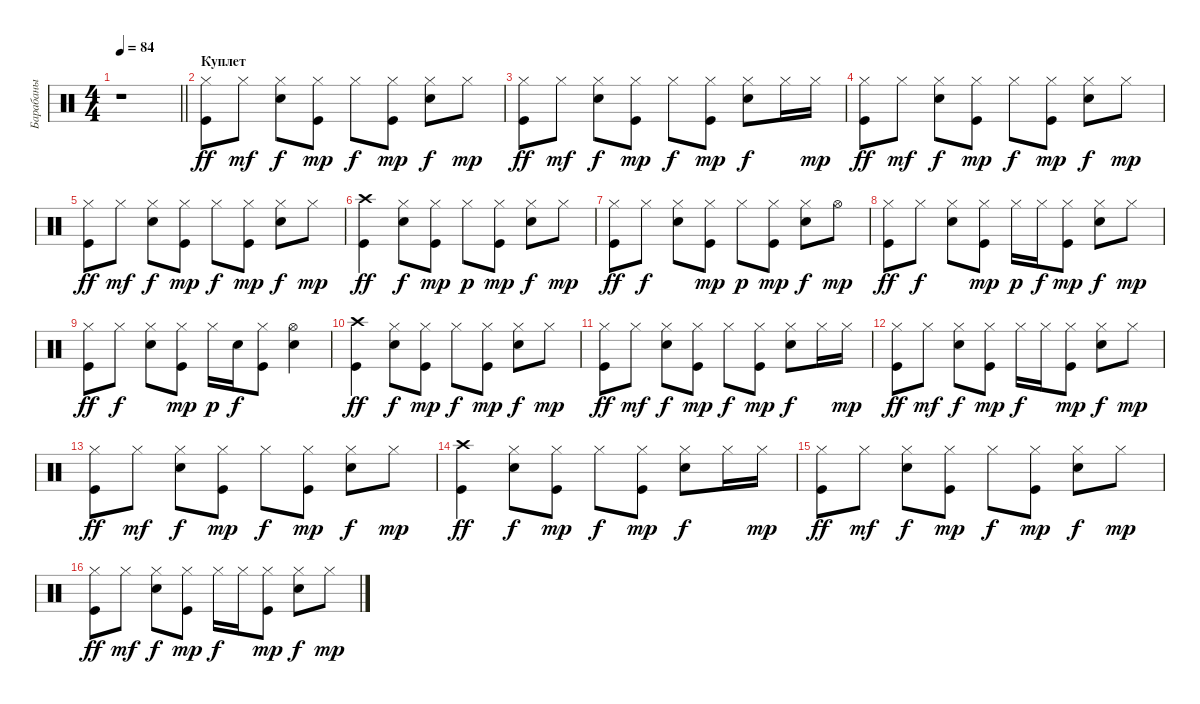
\track ("Барабаны" "Барабаны") {instrument percussion}
\staff {score}
\articulation defaults
\ts (4 4)
\tempo 84
\clef neutral
\barLineRight lightlight
\ks c
r.1{dy f} |
\section ("" "Куплет")
("Hi-Hat (closed)" "Kick (hit)").8{dy ff} "Hi-Hat (closed)".8{dy mf} ("Hi-Hat (closed)" "Electric Snare (hit)").8{dy f} ("Hi-Hat (closed)" "Kick (hit)").8{dy mp} "Hi-Hat (closed)".8{dy f} ("Hi-Hat (closed)" "Kick (hit)").8{dy mp} ("Hi-Hat (closed)" "Electric Snare (hit)").8{dy f} "Hi-Hat (closed)".8{dy mp} |
("Hi-Hat (closed)" "Kick (hit)").8{dy ff} "Hi-Hat (closed)".8{dy mf} ("Hi-Hat (closed)" "Electric Snare (hit)").8{dy f} ("Hi-Hat (closed)" "Kick (hit)").8{dy mp} "Hi-Hat (closed)".8{dy f} ("Hi-Hat (closed)" "Kick (hit)").8{dy mp} ("Hi-Hat (closed)" "Electric Snare (hit)").8{dy f} "Hi-Hat (closed)".16 "Hi-Hat (closed)".16{dy mp} |
("Hi-Hat (closed)" "Kick (hit)").8{dy ff} "Hi-Hat (closed)".8{dy mf} ("Hi-Hat (closed)" "Electric Snare (hit)").8{dy f} ("Hi-Hat (closed)" "Kick (hit)").8{dy mp} "Hi-Hat (closed)".8{dy f} ("Hi-Hat (closed)" "Kick (hit)").8{dy mp} ("Hi-Hat (closed)" "Electric Snare (hit)").8{dy f} "Hi-Hat (closed)".8{dy mp} |
("Hi-Hat (closed)" "Kick (hit)").8{dy ff} "Hi-Hat (closed)".8{dy mf} ("Hi-Hat (closed)" "Electric Snare (hit)").8{dy f} ("Hi-Hat (closed)" "Kick (hit)").8{dy mp} "Hi-Hat (closed)".8{dy f} ("Hi-Hat (closed)" "Kick (hit)").8{dy mp} ("Hi-Hat (closed)" "Electric Snare (hit)").8{dy f} "Hi-Hat (closed)".8{dy mp} |
("Crash high (hit)" "Kick (hit)").4{dy ff} ("Hi-Hat (closed)" "Electric Snare (hit)").8{dy f} ("Hi-Hat (closed)" "Kick (hit)").8{dy mp} "Hi-Hat (closed)".8{dy p} ("Hi-Hat (closed)" "Kick (hit)").8{dy mp} ("Hi-Hat (closed)" "Electric Snare (hit)").8{dy f} "Hi-Hat (closed)".8{dy mp} |
("Hi-Hat (closed)" "Kick (hit)").8{dy ff} "Hi-Hat (closed)".8{dy f} ("Hi-Hat (closed)" "Electric Snare (hit)").8 ("Hi-Hat (closed)" "Kick (hit)").8{dy mp} "Hi-Hat (closed)".8{dy p} ("Hi-Hat (closed)" "Kick (hit)").8{dy mp} ("Hi-Hat (closed)" "Electric Snare (hit)").8{dy f} "Hi-Hat (open)".8{dy mp} |
("Hi-Hat (closed)" "Kick (hit)").8{dy ff} "Hi-Hat (closed)".8{dy f} ("Hi-Hat (closed)" "Electric Snare (hit)").8 ("Hi-Hat (closed)" "Kick (hit)").8{dy mp} "Hi-Hat (closed)".16{dy p} "Hi-Hat (closed)".16{dy f} ("Hi-Hat (closed)" "Kick (hit)").8{dy mp} ("Hi-Hat (closed)" "Electric Snare (hit)").8{dy f} "Hi-Hat (closed)".8{dy mp} |
("Hi-Hat (closed)" "Kick (hit)").8{dy ff} "Hi-Hat (closed)".8{dy f} ("Hi-Hat (closed)" "Electric Snare (hit)").8 ("Hi-Hat (closed)" "Kick (hit)").8{dy mp} "Hi-Hat (closed)".16{dy p} "Electric Snare (hit)".16{dy f} ("Hi-Hat (closed)" "Kick (hit)").8 ("Hi-Hat (open)" "Electric Snare (hit)").4 |
("Crash high (hit)" "Kick (hit)").4{dy ff} ("Hi-Hat (closed)" "Electric Snare (hit)").8{dy f} ("Hi-Hat (closed)" "Kick (hit)").8{dy mp} "Hi-Hat (closed)".8{dy f} ("Hi-Hat (closed)" "Kick (hit)").8{dy mp} ("Hi-Hat (closed)" "Electric Snare (hit)").8{dy f} "Hi-Hat (closed)".8{dy mp} |
("Hi-Hat (closed)" "Kick (hit)").8{dy ff} "Hi-Hat (closed)".8{dy mf} ("Hi-Hat (closed)" "Electric Snare (hit)").8{dy f} ("Hi-Hat (closed)" "Kick (hit)").8{dy mp} "Hi-Hat (closed)".8{dy f} ("Hi-Hat (closed)" "Kick (hit)").8{dy mp} ("Hi-Hat (closed)" "Electric Snare (hit)").8{dy f} "Hi-Hat (closed)".16 "Hi-Hat (closed)".16{dy mp} |
("Hi-Hat (closed)" "Kick (hit)").8{dy ff} "Hi-Hat (closed)".8{dy mf} ("Hi-Hat (closed)" "Electric Snare (hit)").8{dy f} ("Hi-Hat (closed)" "Kick (hit)").8{dy mp} "Hi-Hat (closed)".16{dy f} "Hi-Hat (closed)".16 ("Hi-Hat (closed)" "Kick (hit)").8{dy mp} ("Hi-Hat (closed)" "Electric Snare (hit)").8{dy f} "Hi-Hat (closed)".8{dy mp} |
("Hi-Hat (closed)" "Kick (hit)").8{dy ff} "Hi-Hat (closed)".8{dy mf} ("Hi-Hat (closed)" "Electric Snare (hit)").8{dy f} ("Hi-Hat (closed)" "Kick (hit)").8{dy mp} "Hi-Hat (closed)".8{dy f} ("Hi-Hat (closed)" "Kick (hit)").8{dy mp} ("Hi-Hat (closed)" "Electric Snare (hit)").8{dy f} "Hi-Hat (closed)".8{dy mp} |
("Crash high (hit)" "Kick (hit)").4{dy ff} ("Hi-Hat (closed)" "Electric Snare (hit)").8{dy f} ("Hi-Hat (closed)" "Kick (hit)").8{dy mp} "Hi-Hat (closed)".8{dy f} ("Hi-Hat (closed)" "Kick (hit)").8{dy mp} ("Hi-Hat (closed)" "Electric Snare (hit)").8{dy f} "Hi-Hat (closed)".16 "Hi-Hat (closed)".16{dy mp} |
("Hi-Hat (closed)" "Kick (hit)").8{dy ff} "Hi-Hat (closed)".8{dy mf} ("Hi-Hat (closed)" "Electric Snare (hit)").8{dy f} ("Hi-Hat (closed)" "Kick (hit)").8{dy mp} "Hi-Hat (closed)".8{dy f} ("Hi-Hat (closed)" "Kick (hit)").8{dy mp} ("Hi-Hat (closed)" "Electric Snare (hit)").8{dy f} "Hi-Hat (closed)".8{dy mp} |
("Hi-Hat (closed)" "Kick (hit)").8{dy ff} "Hi-Hat (closed)".8{dy mf} ("Hi-Hat (closed)" "Electric Snare (hit)").8{dy f} ("Hi-Hat (closed)" "Kick (hit)").8{dy mp} "Hi-Hat (closed)".16{dy f} "Hi-Hat (closed)".16 ("Hi-Hat (closed)" "Kick (hit)").8{dy mp} ("Hi-Hat (closed)" "Electric Snare (hit)").8{dy f} "Hi-Hat (closed)".8{dy mp}
